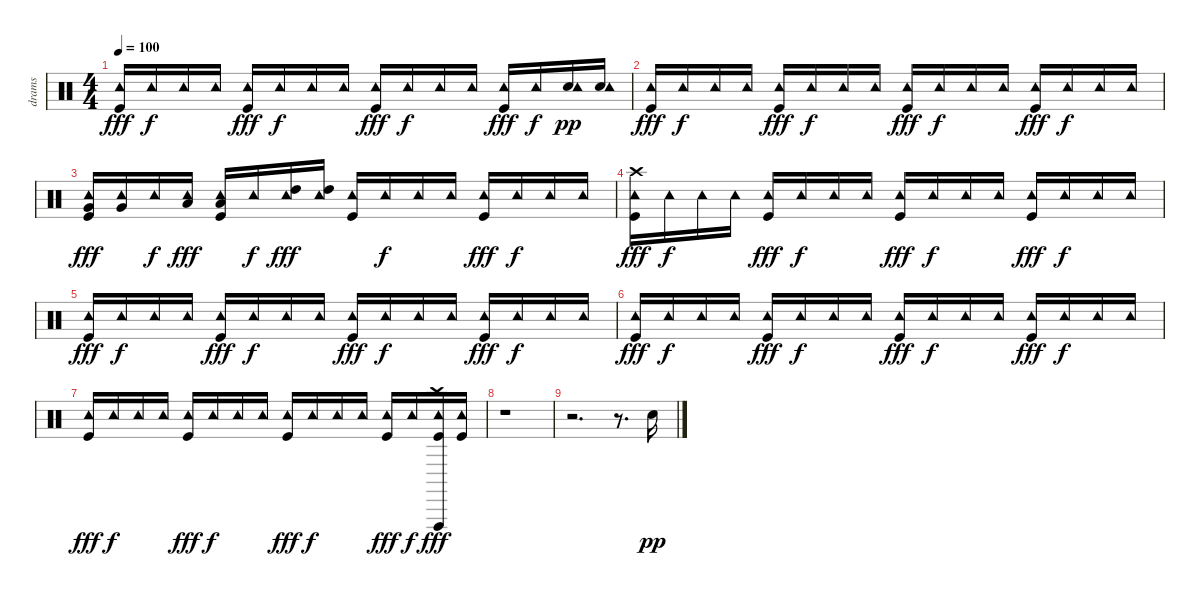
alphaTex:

\track ("drams" "drams") {instrument percussion}
\staff {score}
\articulation defaults
\ts (4 4)
\tempo 100
\clef neutral
\ks c
("Kick (hit)" "Tambourine (hit)").16{dy fff} "Tambourine (hit)".16{dy f} "Tambourine (hit)".16 "Tambourine (hit)".16 ("Kick (hit)" "Tambourine (hit)").16{dy fff} "Tambourine (hit)".16{dy f} "Tambourine (hit)".16 "Tambourine (hit)".16 ("Kick (hit)" "Tambourine (hit)").16{dy fff} "Tambourine (hit)".16{dy f} "Tambourine (hit)".16 "Tambourine (hit)".16 ("Kick (hit)" "Tambourine (hit)").16{dy fff} "Tambourine (hit)".16{dy f} ("Snare (hit)" "Tambourine (hit)").16{dy pp} ("Snare (hit)" "Tambourine (hit)").16 |
("Kick (hit)" "Tambourine (hit)").16{dy fff} "Tambourine (hit)".16{dy f} "Tambourine (hit)".16 "Tambourine (hit)".16 ("Kick (hit)" "Tambourine (hit)").16{dy fff} "Tambourine (hit)".16{dy f} "Tambourine (hit)".16 "Tambourine (hit)".16 ("Kick (hit)" "Tambourine (hit)").16{dy fff} "Tambourine (hit)".16{dy f} "Tambourine (hit)".16 "Tambourine (hit)".16 ("Kick (hit)" "Tambourine (hit)").16{dy fff} "Tambourine (hit)".16{dy f} "Tambourine (hit)".16 "Tambourine (hit)".16 |
("Kick (hit)" "Very Low Tom (hit)" "Tambourine (hit)").16{dy fff} ("Very Low Tom (hit)" "Tambourine (hit)").16 "Tambourine (hit)".16{dy f} ("Low Tom (hit)" "Tambourine (hit)").16{dy fff} ("Kick (hit)" "Low Tom (hit)" "Tambourine (hit)").16 "Tambourine (hit)".16{dy f} ("High Tom (hit)" "Tambourine (hit)").16{dy fff} ("High Tom (hit)" "Tambourine (hit)").16 ("Kick (hit)" "Tambourine (hit)").16 "Tambourine (hit)".16{dy f} "Tambourine (hit)".16 "Tambourine (hit)".16 ("Kick (hit)" "Tambourine (hit)").16{dy fff} "Tambourine (hit)".16{dy f} "Tambourine (hit)".16 "Tambourine (hit)".16 |
("Kick (hit)" "Crash high (hit)" "Tambourine (hit)").16{dy fff} "Tambourine (hit)".16{dy f} "Tambourine (hit)".16 "Tambourine (hit)".16 ("Kick (hit)" "Tambourine (hit)").16{dy fff} "Tambourine (hit)".16{dy f} "Tambourine (hit)".16 "Tambourine (hit)".16 ("Kick (hit)" "Tambourine (hit)").16{dy fff} "Tambourine (hit)".16{dy f} "Tambourine (hit)".16 "Tambourine (hit)".16 ("Kick (hit)" "Tambourine (hit)").16{dy fff} "Tambourine (hit)".16{dy f} "Tambourine (hit)".16 "Tambourine (hit)".16 |
("Kick (hit)" "Tambourine (hit)").16{dy fff} "Tambourine (hit)".16{dy f} "Tambourine (hit)".16 "Tambourine (hit)".16 ("Kick (hit)" "Tambourine (hit)").16{dy fff} "Tambourine (hit)".16{dy f} "Tambourine (hit)".16 "Tambourine (hit)".16 ("Kick (hit)" "Tambourine (hit)").16{dy fff} "Tambourine (hit)".16{dy f} "Tambourine (hit)".16 "Tambourine (hit)".16 ("Kick (hit)" "Tambourine (hit)").16{dy fff} "Tambourine (hit)".16{dy f} "Tambourine (hit)".16 "Tambourine (hit)".16 |
("Kick (hit)" "Tambourine (hit)").16{dy fff} "Tambourine (hit)".16{dy f} "Tambourine (hit)".16 "Tambourine (hit)".16 ("Kick (hit)" "Tambourine (hit)").16{dy fff} "Tambourine (hit)".16{dy f} "Tambourine (hit)".16 "Tambourine (hit)".16 ("Kick (hit)" "Tambourine (hit)").16{dy fff} "Tambourine (hit)".16{dy f} "Tambourine (hit)".16 "Tambourine (hit)".16 ("Kick (hit)" "Tambourine (hit)").16{dy fff} "Tambourine (hit)".16{dy f} "Tambourine (hit)".16 "Tambourine (hit)".16 |
("Kick (hit)" "Tambourine (hit)").16{dy fff} "Tambourine (hit)".16{dy f} "Tambourine (hit)".16 "Tambourine (hit)".16 ("Kick (hit)" "Tambourine (hit)").16{dy fff} "Tambourine (hit)".16{dy f} "Tambourine (hit)".16 "Tambourine (hit)".16 ("Kick (hit)" "Tambourine (hit)").16{dy fff} "Tambourine (hit)".16{dy f} "Tambourine (hit)".16 "Tambourine (hit)".16 ("Kick (hit)" "Tambourine (hit)").16{dy fff} "Tambourine (hit)".16{dy f} ("Kick (hit)" "Crash high (hit)" "Vibraslap (hit)" "Tambourine (hit)").16{dy fff} ("Kick (hit)" "Tambourine (hit)").16 |
r.1 |
r.2{d} r.8{d} "Snare (hit)".16{dy pp}
